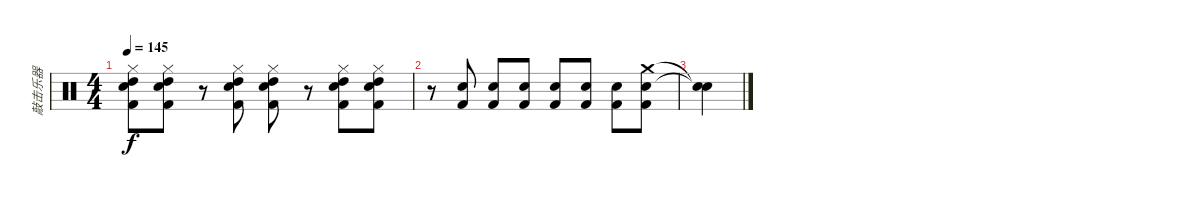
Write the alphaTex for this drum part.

\track ("敲击乐器" "敲击乐器") {instrument percussion}
\staff {score}
\articulation defaults
\ts (4 4)
\tempo 145
\clef neutral
\ks c
("Hi-Hat (closed)" "Electric Snare (hit)" "High Tom (hit)" "Kick (hit) 2").8{dy f} ("Hi-Hat (closed)" "Electric Snare (hit)" "High Tom (hit)" "Kick (hit) 2").8 r.8 ("Hi-Hat (closed)" "Electric Snare (hit)" "High Tom (hit)" "Kick (hit) 2").8 ("Hi-Hat (closed)" "Electric Snare (hit)" "High Tom (hit)" "Kick (hit) 2").8 r.8 ("Hi-Hat (closed)" "Electric Snare (hit)" "High Tom (hit)" "Kick (hit) 2").8 ("Hi-Hat (closed)" "Electric Snare (hit)" "High Tom (hit)" "Kick (hit) 2").8 |
r.8 ("Electric Snare (hit)" "Kick (hit) 2").8 ("Electric Snare (hit)" "Kick (hit) 2").8 ("Electric Snare (hit)" "Kick (hit) 2").8 ("Electric Snare (hit)" "Kick (hit) 2").8 ("Electric Snare (hit)" "Kick (hit) 2").8 ("Electric Snare (hit)" "Kick (hit) 2").8 ("Crash medium (hit)" "Electric Snare (hit)" "Kick (hit) 2").8 |
("Snare (hit)"{t} "Snare (hit)"{t}).4
